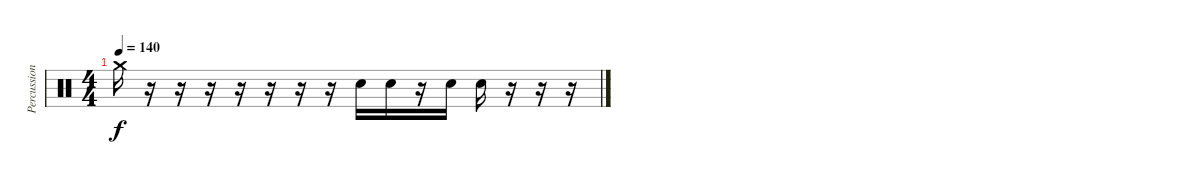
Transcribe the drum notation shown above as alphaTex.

\track ("Percussion" "Percussion") {instrument percussion}
\staff {score}
\articulation defaults
\ts (4 4)
\tempo 140
\clef neutral
\ks c "Crash medium (hit)".16{dy f}
r.16 r.16 r.16 r.16 r.16 r.16 r.16 "Electric Snare (hit)".16 "Electric Snare (hit)".16 r.16 "Electric Snare (hit)".16 "Electric Snare (hit)".16 r.16 r.16 r.16
